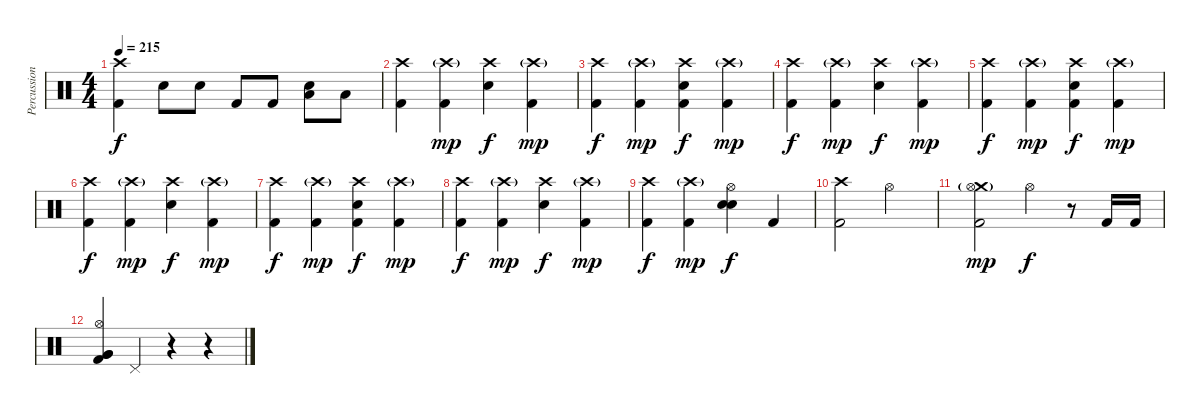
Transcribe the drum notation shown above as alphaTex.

\track ("Percussion" "Percussion") {instrument percussion}
\staff {score}
\articulation defaults
\ts (4 4)
\tempo 215
\clef neutral
\ks c
("Crash high (hit)" "Kick (hit) 2").4{dy f} "Electric Snare (hit)".8 "Electric Snare (hit)".8 "Kick (hit) 2".8 "Kick (hit) 2".8 ("Low Tom (hit)" "Electric Snare (hit)").8 "Low Tom (hit)".8 |
("Crash high (hit)" "Kick (hit) 2").4 ("Crash high (hit)"{g} "Kick (hit) 2").4{dy mp} ("Crash high (hit)" "Electric Snare (hit)").4{dy f} ("Crash high (hit)"{g} "Kick (hit) 2").4{dy mp} |
("Crash high (hit)" "Kick (hit) 2").4{dy f} ("Crash high (hit)"{g} "Kick (hit) 2").4{dy mp} ("Crash high (hit)" "Electric Snare (hit)" "Kick (hit) 2").4{dy f} ("Crash high (hit)"{g} "Kick (hit) 2").4{dy mp} |
("Crash high (hit)" "Kick (hit) 2").4{dy f} ("Crash high (hit)"{g} "Kick (hit) 2").4{dy mp} ("Crash high (hit)" "Electric Snare (hit)").4{dy f} ("Crash high (hit)"{g} "Kick (hit) 2").4{dy mp} |
("Crash high (hit)" "Kick (hit) 2").4{dy f} ("Crash high (hit)"{g} "Kick (hit) 2").4{dy mp} ("Crash high (hit)" "Electric Snare (hit)" "Kick (hit) 2").4{dy f} ("Crash high (hit)"{g} "Kick (hit) 2").4{dy mp} |
("Crash high (hit)" "Kick (hit) 2").4{dy f} ("Crash high (hit)"{g} "Kick (hit) 2").4{dy mp} ("Crash high (hit)" "Electric Snare (hit)").4{dy f} ("Crash high (hit)"{g} "Kick (hit) 2").4{dy mp} |
("Crash high (hit)" "Kick (hit) 2").4{dy f} ("Crash high (hit)"{g} "Kick (hit) 2").4{dy mp} ("Crash high (hit)" "Electric Snare (hit)" "Kick (hit) 2").4{dy f} ("Crash high (hit)"{g} "Kick (hit) 2").4{dy mp} |
("Crash high (hit)" "Kick (hit) 2").4{dy f} ("Crash high (hit)"{g} "Kick (hit) 2").4{dy mp} ("Crash high (hit)" "Electric Snare (hit)").4{dy f} ("Crash high (hit)"{g} "Kick (hit) 2").4{dy mp} |
("Crash high (hit)" "Kick (hit) 2").4{dy f} ("Crash high (hit)"{g} "Kick (hit) 2").4{dy mp} ("Hi-Hat (open)" "Electric Snare (hit)" "Electric Snare (hit)").4{bd 60 dy f} "Kick (hit) 2".4 |
("Crash high (hit)" "Kick (hit) 2").2 "Hi-Hat (open)".2 |
("Crash medium (hit)"{g} "Hi-Hat (open)" "Kick (hit) 2").2{dy mp} "Hi-Hat (open)".4{dy f} r.8 "Kick (hit) 2".16 "Kick (hit) 2".16 |
("Hi-Hat (open)" "Very Low Tom (hit)" "Very Low Tom (hit)" "Kick (hit) 2").4{bd 60} "Pedal Hi-Hat (hit)".4 r.4 r.4
